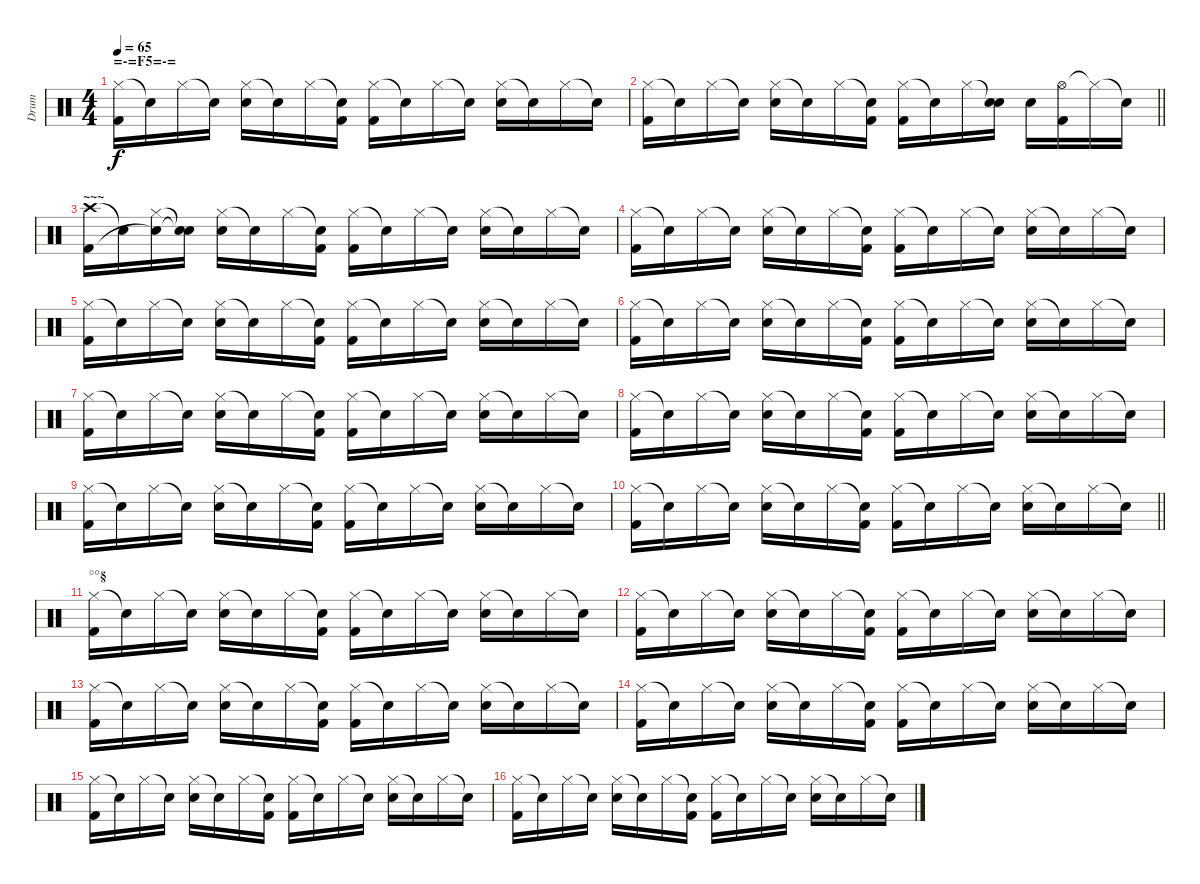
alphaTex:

\track ("Drum" "Drum") {instrument percussion}
\staff {score}
\articulation defaults
\ts (4 4)
\section ("" "=-=F5=-=")
\tempo 65
\clef neutral
\ks c
("Hi-Hat (closed)" "Kick (hit) 2").16{dy f} "Snare (hit)"{t}.16 "Hi-Hat (closed)".16 "Snare (hit)"{t}.16 ("Hi-Hat (closed)" "Snare (hit) 2").16 "Snare (hit)"{t}.16 "Hi-Hat (closed)".16 ("Snare (hit)"{t} "Kick (hit) 2").16 ("Hi-Hat (closed)" "Kick (hit) 2").16 "Snare (hit)"{t}.16 "Hi-Hat (closed)".16 "Snare (hit)"{t}.16 ("Hi-Hat (closed)" "Snare (hit) 2").16 "Snare (hit)"{t}.16 "Hi-Hat (closed)".16 "Snare (hit)"{t}.16 |
\barLineRight lightlight
("Hi-Hat (closed)" "Kick (hit) 2").16 "Snare (hit)"{t}.16 "Hi-Hat (closed)".16 "Snare (hit)"{t}.16 ("Hi-Hat (closed)" "Snare (hit) 2").16 "Snare (hit)"{t}.16 "Hi-Hat (closed)".16 ("Snare (hit)"{t} "Kick (hit) 2").16 ("Hi-Hat (closed)" "Kick (hit) 2").16 "Snare (hit)"{t}.16 "Hi-Hat (closed)".16 ("Snare (hit)"{t} "Snare (hit) 2").16 "Snare (hit) 2".16 ("Hi-Hat (open)" "Kick (hit) 2").16 "Hi-Hat (closed)"{t}.16 "Snare (hit)"{t}.16 |
\section ("" "~~~")
("Crash high (hit)" "Kick (hit) 2").16 "Snare (hit)"{t}.16 ("Hi-Hat (closed)" "Snare (hit)"{t}).16 ("Snare (hit)"{t} "Snare (hit)"{t}).16 ("Hi-Hat (closed)" "Snare (hit) 2").16 "Snare (hit)"{t}.16 "Hi-Hat (closed)".16 ("Snare (hit)"{t} "Kick (hit) 2").16 ("Hi-Hat (closed)" "Kick (hit) 2").16 "Snare (hit)"{t}.16 "Hi-Hat (closed)".16 "Snare (hit)"{t}.16 ("Hi-Hat (closed)" "Snare (hit) 2").16 "Snare (hit)"{t}.16 "Hi-Hat (closed)".16 "Snare (hit)"{t}.16 |
("Hi-Hat (closed)" "Kick (hit) 2").16 "Snare (hit)"{t}.16 "Hi-Hat (closed)".16 "Snare (hit)"{t}.16 ("Hi-Hat (closed)" "Snare (hit) 2").16 "Snare (hit)"{t}.16 "Hi-Hat (closed)".16 ("Snare (hit)"{t} "Kick (hit) 2").16 ("Hi-Hat (closed)" "Kick (hit) 2").16 "Snare (hit)"{t}.16 "Hi-Hat (closed)".16 "Snare (hit)"{t}.16 ("Hi-Hat (closed)" "Snare (hit) 2").16 "Snare (hit)"{t}.16 "Hi-Hat (closed)".16 "Snare (hit)"{t}.16 |
("Hi-Hat (closed)" "Kick (hit) 2").16 "Snare (hit)"{t}.16 "Hi-Hat (closed)".16 "Snare (hit)"{t}.16 ("Hi-Hat (closed)" "Snare (hit) 2").16 "Snare (hit)"{t}.16 "Hi-Hat (closed)".16 ("Snare (hit)"{t} "Kick (hit) 2").16 ("Hi-Hat (closed)" "Kick (hit) 2").16 "Snare (hit)"{t}.16 "Hi-Hat (closed)".16 "Snare (hit)"{t}.16 ("Hi-Hat (closed)" "Snare (hit) 2").16 "Snare (hit)"{t}.16 "Hi-Hat (closed)".16 "Snare (hit)"{t}.16 |
("Hi-Hat (closed)" "Kick (hit) 2").16 "Snare (hit)"{t}.16 "Hi-Hat (closed)".16 "Snare (hit)"{t}.16 ("Hi-Hat (closed)" "Snare (hit) 2").16 "Snare (hit)"{t}.16 "Hi-Hat (closed)".16 ("Snare (hit)"{t} "Kick (hit) 2").16 ("Hi-Hat (closed)" "Kick (hit) 2").16 "Snare (hit)"{t}.16 "Hi-Hat (closed)".16 "Snare (hit)"{t}.16 ("Hi-Hat (closed)" "Snare (hit) 2").16 "Snare (hit)"{t}.16 "Hi-Hat (closed)".16 "Snare (hit)"{t}.16 |
("Hi-Hat (closed)" "Kick (hit) 2").16 "Snare (hit)"{t}.16 "Hi-Hat (closed)".16 "Snare (hit)"{t}.16 ("Hi-Hat (closed)" "Snare (hit) 2").16 "Snare (hit)"{t}.16 "Hi-Hat (closed)".16 ("Snare (hit)"{t} "Kick (hit) 2").16 ("Hi-Hat (closed)" "Kick (hit) 2").16 "Snare (hit)"{t}.16 "Hi-Hat (closed)".16 "Snare (hit)"{t}.16 ("Hi-Hat (closed)" "Snare (hit) 2").16 "Snare (hit)"{t}.16 "Hi-Hat (closed)".16 "Snare (hit)"{t}.16 |
("Hi-Hat (closed)" "Kick (hit) 2").16 "Snare (hit)"{t}.16 "Hi-Hat (closed)".16 "Snare (hit)"{t}.16 ("Hi-Hat (closed)" "Snare (hit) 2").16 "Snare (hit)"{t}.16 "Hi-Hat (closed)".16 ("Snare (hit)"{t} "Kick (hit) 2").16 ("Hi-Hat (closed)" "Kick (hit) 2").16 "Snare (hit)"{t}.16 "Hi-Hat (closed)".16 "Snare (hit)"{t}.16 ("Hi-Hat (closed)" "Snare (hit) 2").16 "Snare (hit)"{t}.16 "Hi-Hat (closed)".16 "Snare (hit)"{t}.16 |
("Hi-Hat (closed)" "Kick (hit) 2").16 "Snare (hit)"{t}.16 "Hi-Hat (closed)".16 "Snare (hit)"{t}.16 ("Hi-Hat (closed)" "Snare (hit) 2").16 "Snare (hit)"{t}.16 "Hi-Hat (closed)".16 ("Snare (hit)"{t} "Kick (hit) 2").16 ("Hi-Hat (closed)" "Kick (hit) 2").16 "Snare (hit)"{t}.16 "Hi-Hat (closed)".16 "Snare (hit)"{t}.16 ("Hi-Hat (closed)" "Snare (hit) 2").16 "Snare (hit)"{t}.16 "Hi-Hat (closed)".16 "Snare (hit)"{t}.16 |
\barLineRight lightlight
("Hi-Hat (closed)" "Kick (hit) 2").16 "Snare (hit)"{t}.16 "Hi-Hat (closed)".16 "Snare (hit)"{t}.16 ("Hi-Hat (closed)" "Snare (hit) 2").16 "Snare (hit)"{t}.16 "Hi-Hat (closed)".16 ("Snare (hit)"{t} "Kick (hit) 2").16 ("Hi-Hat (closed)" "Kick (hit) 2").16 "Snare (hit)"{t}.16 "Hi-Hat (closed)".16 "Snare (hit)"{t}.16 ("Hi-Hat (closed)" "Snare (hit) 2").16 "Snare (hit)"{t}.16 "Hi-Hat (closed)".16 "Snare (hit)"{t}.16 |
\section ("" "°°§")
("Hi-Hat (closed)" "Kick (hit) 2").16 "Snare (hit)"{t}.16 "Hi-Hat (closed)".16 "Snare (hit)"{t}.16 ("Hi-Hat (closed)" "Snare (hit) 2").16 "Snare (hit)"{t}.16 "Hi-Hat (closed)".16 ("Snare (hit)"{t} "Kick (hit) 2").16 ("Hi-Hat (closed)" "Kick (hit) 2").16 "Snare (hit)"{t}.16 "Hi-Hat (closed)".16 "Snare (hit)"{t}.16 ("Hi-Hat (closed)" "Snare (hit) 2").16 "Snare (hit)"{t}.16 "Hi-Hat (closed)".16 "Snare (hit)"{t}.16 |
("Hi-Hat (closed)" "Kick (hit) 2").16 "Snare (hit)"{t}.16 "Hi-Hat (closed)".16 "Snare (hit)"{t}.16 ("Hi-Hat (closed)" "Snare (hit) 2").16 "Snare (hit)"{t}.16 "Hi-Hat (closed)".16 ("Snare (hit)"{t} "Kick (hit) 2").16 ("Hi-Hat (closed)" "Kick (hit) 2").16 "Snare (hit)"{t}.16 "Hi-Hat (closed)".16 "Snare (hit)"{t}.16 ("Hi-Hat (closed)" "Snare (hit) 2").16 "Snare (hit)"{t}.16 "Hi-Hat (closed)".16 "Snare (hit)"{t}.16 |
("Hi-Hat (closed)" "Kick (hit) 2").16 "Snare (hit)"{t}.16 "Hi-Hat (closed)".16 "Snare (hit)"{t}.16 ("Hi-Hat (closed)" "Snare (hit) 2").16 "Snare (hit)"{t}.16 "Hi-Hat (closed)".16 ("Snare (hit)"{t} "Kick (hit) 2").16 ("Hi-Hat (closed)" "Kick (hit) 2").16 "Snare (hit)"{t}.16 "Hi-Hat (closed)".16 "Snare (hit)"{t}.16 ("Hi-Hat (closed)" "Snare (hit) 2").16 "Snare (hit)"{t}.16 "Hi-Hat (closed)".16 "Snare (hit)"{t}.16 |
("Hi-Hat (closed)" "Kick (hit) 2").16 "Snare (hit)"{t}.16 "Hi-Hat (closed)".16 "Snare (hit)"{t}.16 ("Hi-Hat (closed)" "Snare (hit) 2").16 "Snare (hit)"{t}.16 "Hi-Hat (closed)".16 ("Snare (hit)"{t} "Kick (hit) 2").16 ("Hi-Hat (closed)" "Kick (hit) 2").16 "Snare (hit)"{t}.16 "Hi-Hat (closed)".16 "Snare (hit)"{t}.16 ("Hi-Hat (closed)" "Snare (hit) 2").16 "Snare (hit)"{t}.16 "Hi-Hat (closed)".16 "Snare (hit)"{t}.16 |
("Hi-Hat (closed)" "Kick (hit) 2").16 "Snare (hit)"{t}.16 "Hi-Hat (closed)".16 "Snare (hit)"{t}.16 ("Hi-Hat (closed)" "Snare (hit) 2").16 "Snare (hit)"{t}.16 "Hi-Hat (closed)".16 ("Snare (hit)"{t} "Kick (hit) 2").16 ("Hi-Hat (closed)" "Kick (hit) 2").16 "Snare (hit)"{t}.16 "Hi-Hat (closed)".16 "Snare (hit)"{t}.16 ("Hi-Hat (closed)" "Snare (hit) 2").16 "Snare (hit)"{t}.16 "Hi-Hat (closed)".16 "Snare (hit)"{t}.16 |
("Hi-Hat (closed)" "Kick (hit) 2").16 "Snare (hit)"{t}.16 "Hi-Hat (closed)".16 "Snare (hit)"{t}.16 ("Hi-Hat (closed)" "Snare (hit) 2").16 "Snare (hit)"{t}.16 "Hi-Hat (closed)".16 ("Snare (hit)"{t} "Kick (hit) 2").16 ("Hi-Hat (closed)" "Kick (hit) 2").16 "Snare (hit)"{t}.16 "Hi-Hat (closed)".16 "Snare (hit)"{t}.16 ("Hi-Hat (closed)" "Snare (hit) 2").16 "Snare (hit)"{t}.16 "Hi-Hat (closed)".16 "Snare (hit)"{t}.16
